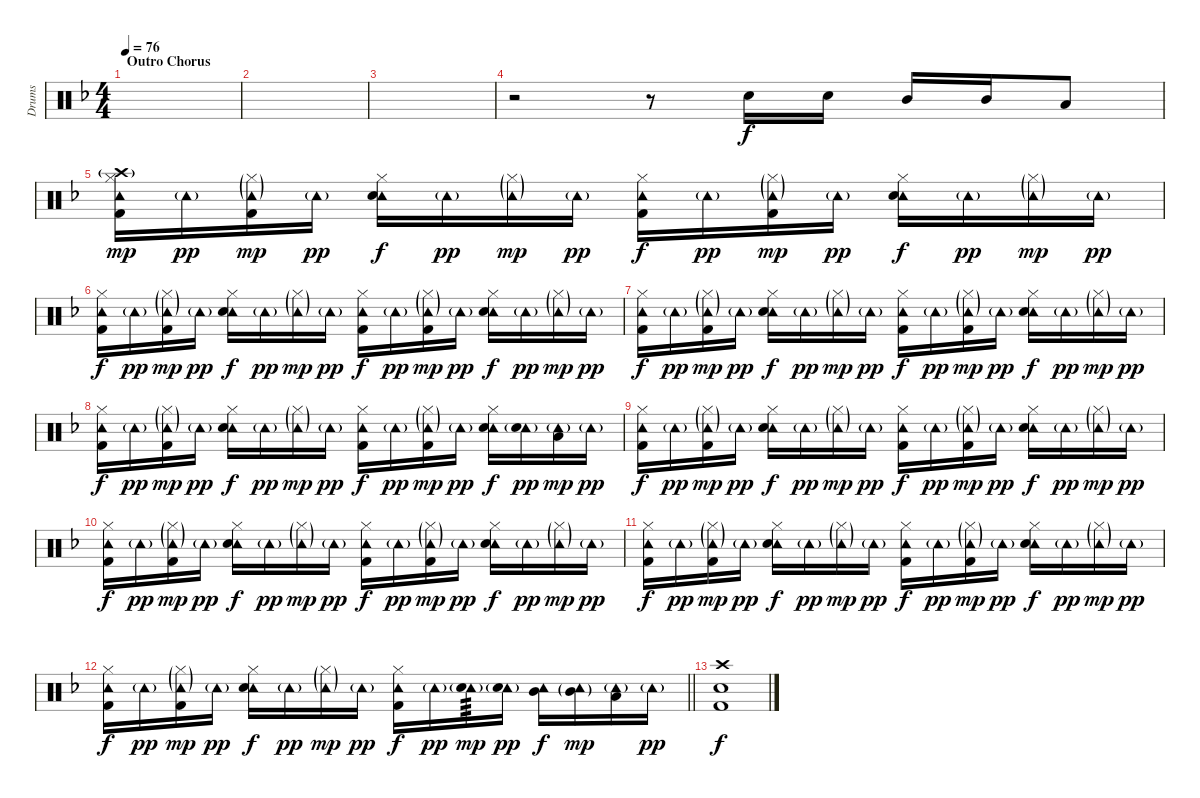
\track ("Drums" "Drums") {instrument percussion}
\staff {score}
\articulation defaults
\ts (4 4)
\section ("" "Outro Chorus")
\tempo 76
\clef neutral
\ks f
|
|
|
r.2 r.8 "Snare (hit) 2".16 "Snare (hit) 2".16 "Mid Tom (hit)".16 "Mid Tom (hit)".16 "Low Tom (hit)".8 |
("Hi-Hat (closed)" "Tambourine (hit)" "Crash high (hit)"{g} "Kick (hit) 2").16{dy mp} "Tambourine (hit)"{g}.16{dy pp} ("Hi-Hat (closed)"{g} "Tambourine (hit)"{g} "Kick (hit) 2").16{dy mp} "Tambourine (hit)"{g}.16{dy pp} ("Hi-Hat (closed)" "Tambourine (hit)" "Snare (hit) 2").16{dy f} "Tambourine (hit)"{g}.16{dy pp} ("Hi-Hat (closed)"{g} "Tambourine (hit)"{g}).16{dy mp} "Tambourine (hit)"{g}.16{dy pp} ("Hi-Hat (closed)" "Tambourine (hit)" "Kick (hit) 2").16{dy f} "Tambourine (hit)"{g}.16{dy pp} ("Hi-Hat (closed)"{g} "Tambourine (hit)"{g} "Kick (hit) 2").16{dy mp} "Tambourine (hit)"{g}.16{dy pp} ("Hi-Hat (closed)" "Tambourine (hit)" "Snare (hit) 2").16{dy f} "Tambourine (hit)"{g}.16{dy pp} ("Hi-Hat (closed)"{g} "Tambourine (hit)"{g}).16{dy mp} "Tambourine (hit)"{g}.16{dy pp} |
("Hi-Hat (closed)" "Tambourine (hit)" "Kick (hit) 2").16{dy f} "Tambourine (hit)"{g}.16{dy pp} ("Hi-Hat (closed)"{g} "Tambourine (hit)"{g} "Kick (hit) 2").16{dy mp} "Tambourine (hit)"{g}.16{dy pp} ("Hi-Hat (closed)" "Tambourine (hit)" "Snare (hit) 2").16{dy f} "Tambourine (hit)"{g}.16{dy pp} ("Hi-Hat (closed)"{g} "Tambourine (hit)"{g}).16{dy mp} "Tambourine (hit)"{g}.16{dy pp} ("Hi-Hat (closed)" "Tambourine (hit)" "Kick (hit) 2").16{dy f} "Tambourine (hit)"{g}.16{dy pp} ("Hi-Hat (closed)"{g} "Tambourine (hit)"{g} "Kick (hit) 2").16{dy mp} "Tambourine (hit)"{g}.16{dy pp} ("Hi-Hat (closed)" "Tambourine (hit)" "Snare (hit) 2").16{dy f} "Tambourine (hit)"{g}.16{dy pp} ("Hi-Hat (closed)"{g} "Tambourine (hit)"{g}).16{dy mp} "Tambourine (hit)"{g}.16{dy pp} |
("Hi-Hat (closed)" "Tambourine (hit)" "Kick (hit) 2").16{dy f} "Tambourine (hit)"{g}.16{dy pp} ("Hi-Hat (closed)"{g} "Tambourine (hit)"{g} "Kick (hit) 2").16{dy mp} "Tambourine (hit)"{g}.16{dy pp} ("Hi-Hat (closed)" "Tambourine (hit)" "Snare (hit) 2").16{dy f} "Tambourine (hit)"{g}.16{dy pp} ("Hi-Hat (closed)"{g} "Tambourine (hit)"{g}).16{dy mp} "Tambourine (hit)"{g}.16{dy pp} ("Hi-Hat (closed)" "Tambourine (hit)" "Kick (hit) 2").16{dy f} "Tambourine (hit)"{g}.16{dy pp} ("Hi-Hat (closed)"{g} "Tambourine (hit)"{g} "Kick (hit) 2").16{dy mp} "Tambourine (hit)"{g}.16{dy pp} ("Hi-Hat (closed)" "Tambourine (hit)" "Snare (hit) 2").16{dy f} "Tambourine (hit)"{g}.16{dy pp} ("Hi-Hat (closed)"{g} "Tambourine (hit)"{g}).16{dy mp} "Tambourine (hit)"{g}.16{dy pp} |
("Hi-Hat (closed)" "Tambourine (hit)" "Kick (hit) 2").16{dy f} "Tambourine (hit)"{g}.16{dy pp} ("Hi-Hat (closed)"{g} "Tambourine (hit)"{g} "Kick (hit) 2").16{dy mp} "Tambourine (hit)"{g}.16{dy pp} ("Hi-Hat (closed)" "Tambourine (hit)" "Snare (hit) 2").16{dy f} "Tambourine (hit)"{g}.16{dy pp} ("Hi-Hat (closed)"{g} "Tambourine (hit)"{g}).16{dy mp} "Tambourine (hit)"{g}.16{dy pp} ("Hi-Hat (closed)" "Tambourine (hit)" "Kick (hit) 2").16{dy f} "Tambourine (hit)"{g}.16{dy pp} ("Hi-Hat (closed)"{g} "Tambourine (hit)"{g} "Kick (hit) 2").16{dy mp} "Tambourine (hit)"{g}.16{dy pp} ("Hi-Hat (closed)" "Tambourine (hit)" "Snare (hit) 2").16{dy f} ("Tambourine (hit)"{g} "Snare (hit) 2").16{dy pp} ("Tambourine (hit)"{g} "Low Tom (hit)").16{dy mp} "Tambourine (hit)"{g}.16{dy pp} |
("Hi-Hat (closed)" "Tambourine (hit)" "Kick (hit) 2").16{dy f} "Tambourine (hit)"{g}.16{dy pp} ("Hi-Hat (closed)"{g} "Tambourine (hit)"{g} "Kick (hit) 2").16{dy mp} "Tambourine (hit)"{g}.16{dy pp} ("Hi-Hat (closed)" "Tambourine (hit)" "Snare (hit) 2").16{dy f} "Tambourine (hit)"{g}.16{dy pp} ("Hi-Hat (closed)"{g} "Tambourine (hit)"{g}).16{dy mp} "Tambourine (hit)"{g}.16{dy pp} ("Hi-Hat (closed)" "Tambourine (hit)" "Kick (hit) 2").16{dy f} "Tambourine (hit)"{g}.16{dy pp} ("Hi-Hat (closed)"{g} "Tambourine (hit)"{g} "Kick (hit) 2").16{dy mp} "Tambourine (hit)"{g}.16{dy pp} ("Hi-Hat (closed)" "Tambourine (hit)" "Snare (hit) 2").16{dy f} "Tambourine (hit)"{g}.16{dy pp} ("Hi-Hat (closed)"{g} "Tambourine (hit)"{g}).16{dy mp} "Tambourine (hit)"{g}.16{dy pp} |
("Hi-Hat (closed)" "Tambourine (hit)" "Kick (hit) 2").16{dy f} "Tambourine (hit)"{g}.16{dy pp} ("Hi-Hat (closed)"{g} "Tambourine (hit)"{g} "Kick (hit) 2").16{dy mp} "Tambourine (hit)"{g}.16{dy pp} ("Hi-Hat (closed)" "Tambourine (hit)" "Snare (hit) 2").16{dy f} "Tambourine (hit)"{g}.16{dy pp} ("Hi-Hat (closed)"{g} "Tambourine (hit)"{g}).16{dy mp} "Tambourine (hit)"{g}.16{dy pp} ("Hi-Hat (closed)" "Tambourine (hit)" "Kick (hit) 2").16{dy f} "Tambourine (hit)"{g}.16{dy pp} ("Hi-Hat (closed)"{g} "Tambourine (hit)"{g} "Kick (hit) 2").16{dy mp} "Tambourine (hit)"{g}.16{dy pp} ("Hi-Hat (closed)" "Tambourine (hit)" "Snare (hit) 2").16{dy f} "Tambourine (hit)"{g}.16{dy pp} ("Hi-Hat (closed)"{g} "Tambourine (hit)"{g}).16{dy mp} "Tambourine (hit)"{g}.16{dy pp} |
("Hi-Hat (closed)" "Tambourine (hit)" "Kick (hit) 2").16{dy f} "Tambourine (hit)"{g}.16{dy pp} ("Hi-Hat (closed)"{g} "Tambourine (hit)"{g} "Kick (hit) 2").16{dy mp} "Tambourine (hit)"{g}.16{dy pp} ("Hi-Hat (closed)" "Tambourine (hit)" "Snare (hit) 2").16{dy f} "Tambourine (hit)"{g}.16{dy pp} ("Hi-Hat (closed)"{g} "Tambourine (hit)"{g}).16{dy mp} "Tambourine (hit)"{g}.16{dy pp} ("Hi-Hat (closed)" "Tambourine (hit)" "Kick (hit) 2").16{dy f} "Tambourine (hit)"{g}.16{dy pp} ("Hi-Hat (closed)"{g} "Tambourine (hit)"{g} "Kick (hit) 2").16{dy mp} "Tambourine (hit)"{g}.16{dy pp} ("Hi-Hat (closed)" "Tambourine (hit)" "Snare (hit) 2").16{dy f} "Tambourine (hit)"{g}.16{dy pp} ("Hi-Hat (closed)"{g} "Tambourine (hit)"{g}).16{dy mp} "Tambourine (hit)"{g}.16{dy pp} |
\barLineRight lightlight
("Hi-Hat (closed)" "Tambourine (hit)" "Kick (hit) 2").16{dy f} "Tambourine (hit)"{g}.16{dy pp} ("Hi-Hat (closed)"{g} "Tambourine (hit)"{g} "Kick (hit) 2").16{dy mp} "Tambourine (hit)"{g}.16{dy pp} ("Hi-Hat (closed)" "Tambourine (hit)" "Snare (hit) 2").16{dy f} "Tambourine (hit)"{g}.16{dy pp} ("Hi-Hat (closed)"{g} "Tambourine (hit)"{g}).16{dy mp} "Tambourine (hit)"{g}.16{dy pp} ("Hi-Hat (closed)" "Tambourine (hit)" "Kick (hit) 2").16{dy f} "Tambourine (hit)"{g}.16{dy pp} ("Tambourine (hit)"{g} "Snare (hit) 2"{g}).16{tp 3 dy mp} ("Tambourine (hit)"{g} "Snare (hit) 2").16{dy pp} ("Tambourine (hit)" "Mid Tom (hit)").16{dy f} ("Tambourine (hit)"{g} "Mid Tom (hit)"{g}).16{dy mp} ("Tambourine (hit)"{g} "Low Tom (hit)").16 "Tambourine (hit)"{g}.16{dy pp} |
("Crash high (hit)" "Snare (hit) 2" "Kick (hit) 2").1{dy f}
